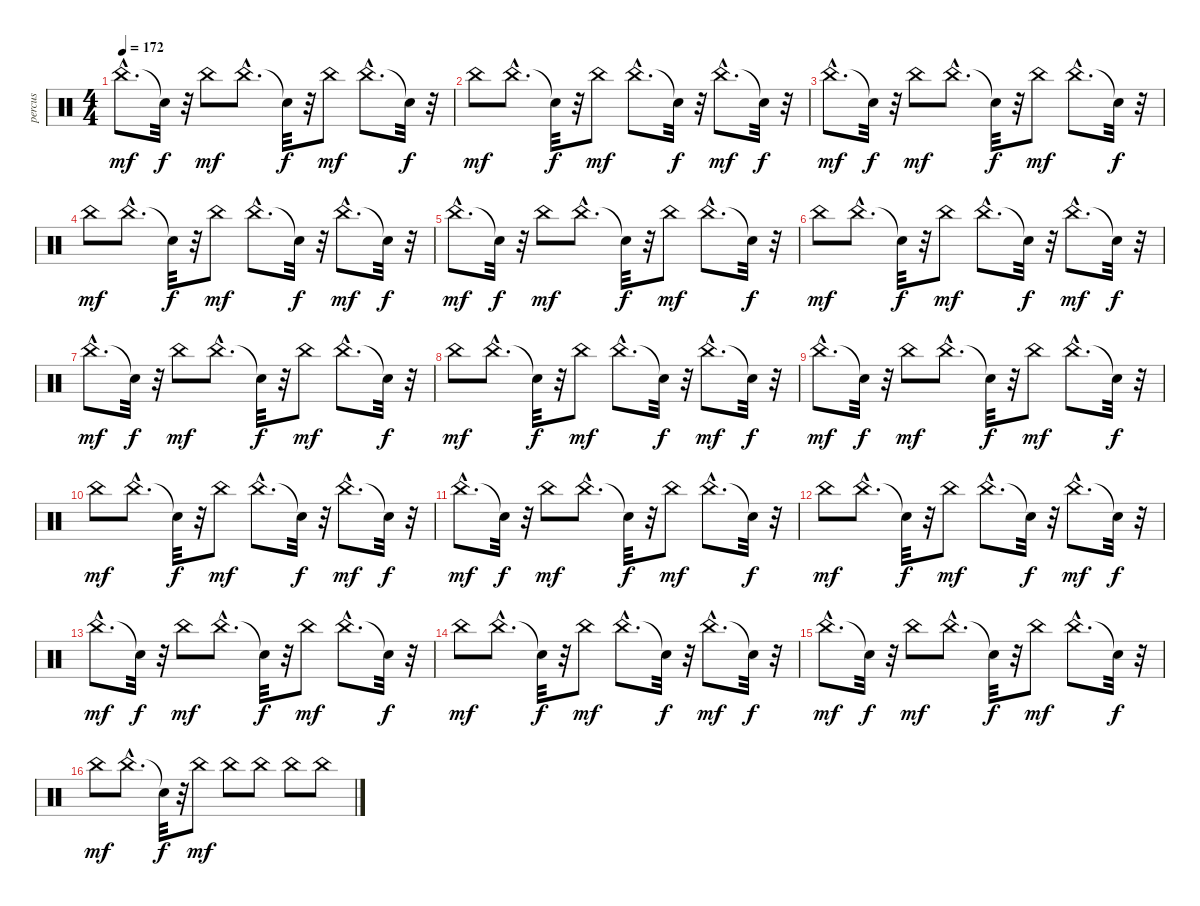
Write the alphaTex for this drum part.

\track ("percus" "percus") {instrument percussion}
\staff {score}
\articulation defaults
\ts (4 4)
\tempo 172
\clef neutral
\ks c "China (hit)"{hac}.8{d dy mf} "Snare (hit)"{t}.32{dy f}
r.32 "China (hit)".8{dy mf} "China (hit)"{hac}.8{d} "Snare (hit)"{t}.32{dy f} r.32 "China (hit)".8{dy mf} "China (hit)"{hac}.8{d} "Snare (hit)"{t}.32{dy f} r.32 |
"China (hit)".8{dy mf} "China (hit)"{hac}.8{d} "Snare (hit)"{t}.32{dy f} r.32 "China (hit)".8{dy mf} "China (hit)"{hac}.8{d} "Snare (hit)"{t}.32{dy f} r.32 "China (hit)"{hac}.8{d dy mf} "Snare (hit)"{t}.32{dy f} r.32 |
"China (hit)"{hac}.8{d dy mf} "Snare (hit)"{t}.32{dy f} r.32 "China (hit)".8{dy mf} "China (hit)"{hac}.8{d} "Snare (hit)"{t}.32{dy f} r.32 "China (hit)".8{dy mf} "China (hit)"{hac}.8{d} "Snare (hit)"{t}.32{dy f} r.32 |
"China (hit)".8{dy mf} "China (hit)"{hac}.8{d} "Snare (hit)"{t}.32{dy f} r.32 "China (hit)".8{dy mf} "China (hit)"{hac}.8{d} "Snare (hit)"{t}.32{dy f} r.32 "China (hit)"{hac}.8{d dy mf} "Snare (hit)"{t}.32{dy f} r.32 |
"China (hit)"{hac}.8{d dy mf} "Snare (hit)"{t}.32{dy f} r.32 "China (hit)".8{dy mf} "China (hit)"{hac}.8{d} "Snare (hit)"{t}.32{dy f} r.32 "China (hit)".8{dy mf} "China (hit)"{hac}.8{d} "Snare (hit)"{t}.32{dy f} r.32 |
"China (hit)".8{dy mf} "China (hit)"{hac}.8{d} "Snare (hit)"{t}.32{dy f} r.32 "China (hit)".8{dy mf} "China (hit)"{hac}.8{d} "Snare (hit)"{t}.32{dy f} r.32 "China (hit)"{hac}.8{d dy mf} "Snare (hit)"{t}.32{dy f} r.32 |
"China (hit)"{hac}.8{d dy mf} "Snare (hit)"{t}.32{dy f} r.32 "China (hit)".8{dy mf} "China (hit)"{hac}.8{d} "Snare (hit)"{t}.32{dy f} r.32 "China (hit)".8{dy mf} "China (hit)"{hac}.8{d} "Snare (hit)"{t}.32{dy f} r.32 |
"China (hit)".8{dy mf} "China (hit)"{hac}.8{d} "Snare (hit)"{t}.32{dy f} r.32 "China (hit)".8{dy mf} "China (hit)"{hac}.8{d} "Snare (hit)"{t}.32{dy f} r.32 "China (hit)"{hac}.8{d dy mf} "Snare (hit)"{t}.32{dy f} r.32 |
"China (hit)"{hac}.8{d dy mf} "Snare (hit)"{t}.32{dy f} r.32 "China (hit)".8{dy mf} "China (hit)"{hac}.8{d} "Snare (hit)"{t}.32{dy f} r.32 "China (hit)".8{dy mf} "China (hit)"{hac}.8{d} "Snare (hit)"{t}.32{dy f} r.32 |
"China (hit)".8{dy mf} "China (hit)"{hac}.8{d} "Snare (hit)"{t}.32{dy f} r.32 "China (hit)".8{dy mf} "China (hit)"{hac}.8{d} "Snare (hit)"{t}.32{dy f} r.32 "China (hit)"{hac}.8{d dy mf} "Snare (hit)"{t}.32{dy f} r.32 |
"China (hit)"{hac}.8{d dy mf} "Snare (hit)"{t}.32{dy f} r.32 "China (hit)".8{dy mf} "China (hit)"{hac}.8{d} "Snare (hit)"{t}.32{dy f} r.32 "China (hit)".8{dy mf} "China (hit)"{hac}.8{d} "Snare (hit)"{t}.32{dy f} r.32 |
"China (hit)".8{dy mf} "China (hit)"{hac}.8{d} "Snare (hit)"{t}.32{dy f} r.32 "China (hit)".8{dy mf} "China (hit)"{hac}.8{d} "Snare (hit)"{t}.32{dy f} r.32 "China (hit)"{hac}.8{d dy mf} "Snare (hit)"{t}.32{dy f} r.32 |
"China (hit)"{hac}.8{d dy mf} "Snare (hit)"{t}.32{dy f} r.32 "China (hit)".8{dy mf} "China (hit)"{hac}.8{d} "Snare (hit)"{t}.32{dy f} r.32 "China (hit)".8{dy mf} "China (hit)"{hac}.8{d} "Snare (hit)"{t}.32{dy f} r.32 |
"China (hit)".8{dy mf} "China (hit)"{hac}.8{d} "Snare (hit)"{t}.32{dy f} r.32 "China (hit)".8{dy mf} "China (hit)"{hac}.8{d} "Snare (hit)"{t}.32{dy f} r.32 "China (hit)"{hac}.8{d dy mf} "Snare (hit)"{t}.32{dy f} r.32 |
"China (hit)"{hac}.8{d dy mf} "Snare (hit)"{t}.32{dy f} r.32 "China (hit)".8{dy mf} "China (hit)"{hac}.8{d} "Snare (hit)"{t}.32{dy f} r.32 "China (hit)".8{dy mf} "China (hit)"{hac}.8{d} "Snare (hit)"{t}.32{dy f} r.32 |
"China (hit)".8{dy mf} "China (hit)"{hac}.8{d} "Snare (hit)"{t}.32{dy f} r.32 "China (hit)".8{dy mf} "China (hit)".8 "China (hit)".8 "China (hit)".8 "China (hit)".8
